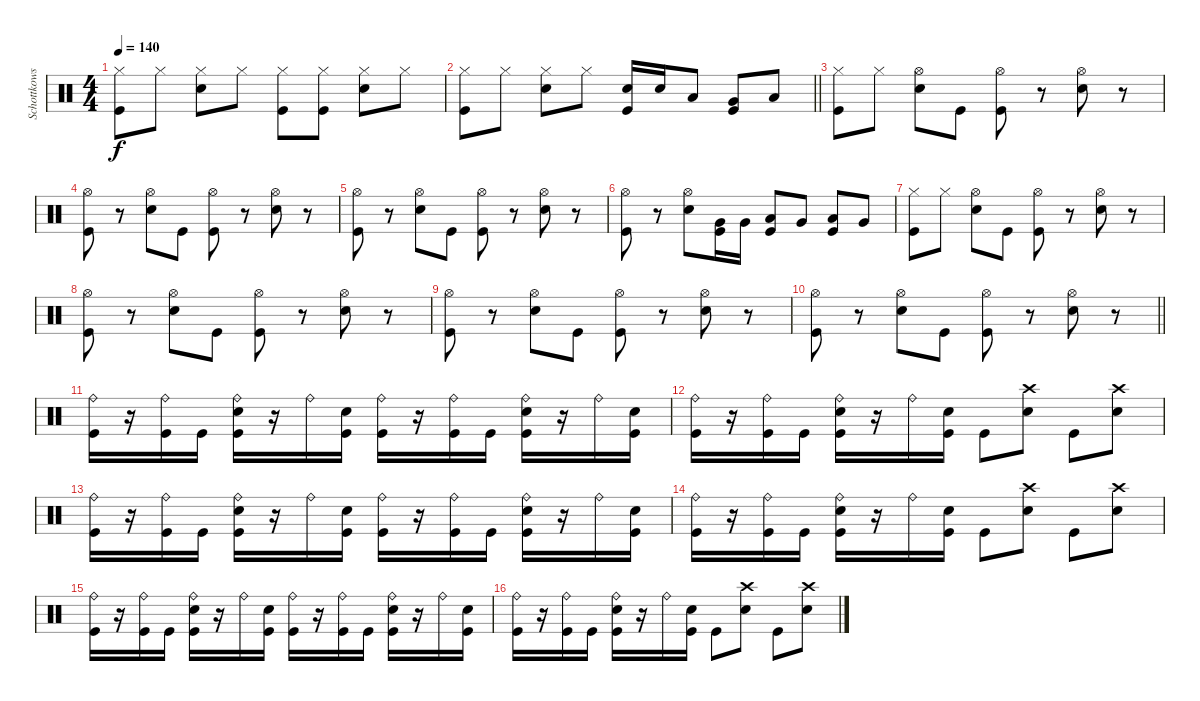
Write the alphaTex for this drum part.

\track ("Schottkowski" "Schottkows") {instrument percussion}
\staff {score}
\articulation defaults
\ts (4 4)
\section ("" "")
\tempo 140
\clef neutral
\ks c
("Hi-Hat (closed)" "Kick (hit)").8{dy f} "Hi-Hat (closed)".8 ("Hi-Hat (closed)" "Snare (hit) 2").8 "Hi-Hat (closed)".8 ("Hi-Hat (closed)" "Kick (hit)").8 ("Hi-Hat (closed)" "Kick (hit)").8 ("Hi-Hat (closed)" "Snare (hit) 2").8 "Hi-Hat (closed)".8 |
\barLineRight lightlight
("Hi-Hat (closed)" "Kick (hit)").8 "Hi-Hat (closed)".8 ("Hi-Hat (closed)" "Snare (hit) 2").8 "Hi-Hat (closed)".8 ("Snare (hit) 2" "Kick (hit)").16 "Snare (hit) 2".16 "Low Tom (hit)".8 ("Very Low Tom (hit)" "Kick (hit)").8 "Low Tom (hit)".8 |
\section ("" "")
("Hi-Hat (closed)" "Kick (hit)").8 "Hi-Hat (closed)".8 ("Hi-Hat (open)" "Snare (hit) 2").8 "Kick (hit)".8 ("Hi-Hat (open)" "Kick (hit)").8 r.8 ("Hi-Hat (open)" "Snare (hit) 2").8 r.8 |
("Hi-Hat (open)" "Kick (hit)").8 r.8 ("Hi-Hat (open)" "Snare (hit) 2").8 "Kick (hit)".8 ("Hi-Hat (open)" "Kick (hit)").8 r.8 ("Hi-Hat (open)" "Snare (hit) 2").8 r.8 |
("Hi-Hat (open)" "Kick (hit)").8 r.8 ("Hi-Hat (open)" "Snare (hit) 2").8 "Kick (hit)".8 ("Hi-Hat (open)" "Kick (hit)").8 r.8 ("Hi-Hat (open)" "Snare (hit) 2").8 r.8 |
("Hi-Hat (open)" "Kick (hit)").8 r.8 ("Hi-Hat (open)" "Snare (hit) 2").8 ("Very Low Tom (hit)" "Kick (hit)").16 "Very Low Tom (hit)".16 ("Low Tom (hit)" "Kick (hit)").8 "Very Low Tom (hit)".8 ("Low Floor Tom (hit)" "Kick (hit)").8 "Very Low Tom (hit)".8 |
("Hi-Hat (closed)" "Kick (hit)").8 "Hi-Hat (closed)".8 ("Hi-Hat (open)" "Snare (hit) 2").8 "Kick (hit)".8 ("Hi-Hat (open)" "Kick (hit)").8 r.8 ("Hi-Hat (open)" "Snare (hit) 2").8 r.8 |
("Hi-Hat (open)" "Kick (hit)").8 r.8 ("Hi-Hat (open)" "Snare (hit) 2").8 "Kick (hit)".8 ("Hi-Hat (open)" "Kick (hit)").8 r.8 ("Hi-Hat (open)" "Snare (hit) 2").8 r.8 |
("Hi-Hat (open)" "Kick (hit)").8 r.8 ("Hi-Hat (open)" "Snare (hit) 2").8 "Kick (hit)".8 ("Hi-Hat (open)" "Kick (hit)").8 r.8 ("Hi-Hat (open)" "Snare (hit) 2").8 r.8 |
\barLineRight lightlight
("Hi-Hat (open)" "Kick (hit)").8 r.8 ("Hi-Hat (open)" "Snare (hit) 2").8 "Kick (hit)".8 ("Hi-Hat (open)" "Kick (hit)").8 r.8 ("Hi-Hat (open)" "Snare (hit) 2").8 r.8 |
\section ("" "")
("Ride (bell)" "Kick (hit)").16 r.16 ("Ride (bell)" "Kick (hit)").16 "Kick (hit)".16 ("Ride (bell)" "Snare (hit) 2" "Kick (hit)").16 r.16 "Ride (bell)".16 ("Snare (hit) 2" "Kick (hit)").16 ("Ride (bell)" "Kick (hit)").16 r.16 ("Ride (bell)" "Kick (hit)").16 "Kick (hit)".16 ("Ride (bell)" "Snare (hit) 2" "Kick (hit)").16 r.16 "Ride (bell)".16 ("Snare (hit) 2" "Kick (hit)").16 |
("Ride (bell)" "Kick (hit)").16 r.16 ("Ride (bell)" "Kick (hit)").16 "Kick (hit)".16 ("Ride (bell)" "Snare (hit) 2" "Kick (hit)").16 r.16 "Ride (bell)".16 ("Snare (hit) 2" "Kick (hit)").16 "Kick (hit)".8 ("Crash high (hit)" "Snare (hit) 2").8 "Kick (hit)".8 ("Crash high (hit)" "Snare (hit) 2").8 |
("Ride (bell)" "Kick (hit)").16 r.16 ("Ride (bell)" "Kick (hit)").16 "Kick (hit)".16 ("Ride (bell)" "Snare (hit) 2" "Kick (hit)").16 r.16 "Ride (bell)".16 ("Snare (hit) 2" "Kick (hit)").16 ("Ride (bell)" "Kick (hit)").16 r.16 ("Ride (bell)" "Kick (hit)").16 "Kick (hit)".16 ("Ride (bell)" "Snare (hit) 2" "Kick (hit)").16 r.16 "Ride (bell)".16 ("Snare (hit) 2" "Kick (hit)").16 |
("Ride (bell)" "Kick (hit)").16 r.16 ("Ride (bell)" "Kick (hit)").16 "Kick (hit)".16 ("Ride (bell)" "Snare (hit) 2" "Kick (hit)").16 r.16 "Ride (bell)".16 ("Snare (hit) 2" "Kick (hit)").16 "Kick (hit)".8 ("Crash high (hit)" "Snare (hit) 2").8 "Kick (hit)".8 ("Crash high (hit)" "Snare (hit) 2").8 |
("Ride (bell)" "Kick (hit)").16 r.16 ("Ride (bell)" "Kick (hit)").16 "Kick (hit)".16 ("Ride (bell)" "Snare (hit) 2" "Kick (hit)").16 r.16 "Ride (bell)".16 ("Snare (hit) 2" "Kick (hit)").16 ("Ride (bell)" "Kick (hit)").16 r.16 ("Ride (bell)" "Kick (hit)").16 "Kick (hit)".16 ("Ride (bell)" "Snare (hit) 2" "Kick (hit)").16 r.16 "Ride (bell)".16 ("Snare (hit) 2" "Kick (hit)").16 |
("Ride (bell)" "Kick (hit)").16 r.16 ("Ride (bell)" "Kick (hit)").16 "Kick (hit)".16 ("Ride (bell)" "Snare (hit) 2" "Kick (hit)").16 r.16 "Ride (bell)".16 ("Snare (hit) 2" "Kick (hit)").16 "Kick (hit)".8 ("Crash high (hit)" "Snare (hit) 2").8 "Kick (hit)".8 ("Crash high (hit)" "Snare (hit) 2").8
